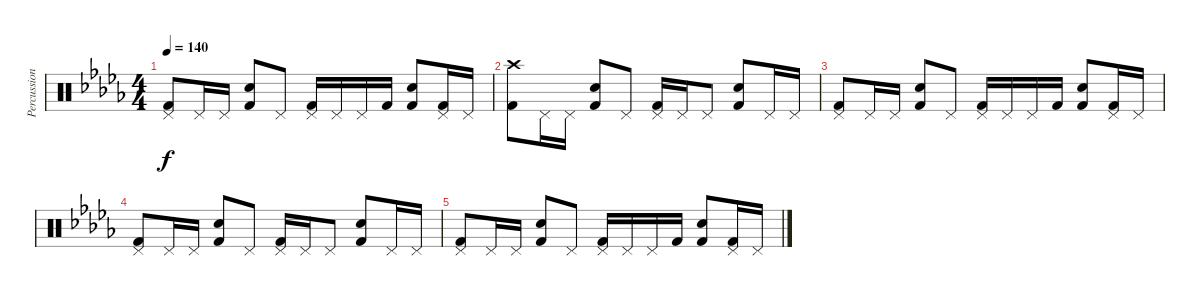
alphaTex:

\track ("Percussion" "Percussion") {instrument percussion}
\staff {score}
\articulation defaults
\ts (4 4)
\tempo 140
\clef neutral
\ks db
("Pedal Hi-Hat (hit)" "Kick (hit) 2").8{dy f} "Pedal Hi-Hat (hit)".16 "Pedal Hi-Hat (hit)".16 ("Snare (hit) 2" "Kick (hit) 2").8 "Pedal Hi-Hat (hit)".8 ("Pedal Hi-Hat (hit)" "Kick (hit) 2").16 "Pedal Hi-Hat (hit)".16 "Pedal Hi-Hat (hit)".16 "Kick (hit) 2".16 ("Snare (hit) 2" "Kick (hit) 2").8 ("Pedal Hi-Hat (hit)" "Kick (hit) 2").16 "Pedal Hi-Hat (hit)".16 |
("Crash high (hit)" "Kick (hit) 2").8 "Pedal Hi-Hat (hit)".16 "Pedal Hi-Hat (hit)".16 ("Snare (hit) 2" "Kick (hit) 2").8 "Pedal Hi-Hat (hit)".8 ("Pedal Hi-Hat (hit)" "Kick (hit) 2").16 "Pedal Hi-Hat (hit)".16 "Pedal Hi-Hat (hit)".8 ("Snare (hit) 2" "Kick (hit) 2").8 "Pedal Hi-Hat (hit)".16 "Pedal Hi-Hat (hit)".16 |
("Pedal Hi-Hat (hit)" "Kick (hit) 2").8 "Pedal Hi-Hat (hit)".16 "Pedal Hi-Hat (hit)".16 ("Snare (hit) 2" "Kick (hit) 2").8 "Pedal Hi-Hat (hit)".8 ("Pedal Hi-Hat (hit)" "Kick (hit) 2").16 "Pedal Hi-Hat (hit)".16 "Pedal Hi-Hat (hit)".16 "Kick (hit) 2".16 ("Snare (hit) 2" "Kick (hit) 2").8 ("Pedal Hi-Hat (hit)" "Kick (hit) 2").16 "Pedal Hi-Hat (hit)".16 |
("Pedal Hi-Hat (hit)" "Kick (hit) 2").8 "Pedal Hi-Hat (hit)".16 "Pedal Hi-Hat (hit)".16 ("Snare (hit) 2" "Kick (hit) 2").8 "Pedal Hi-Hat (hit)".8 ("Pedal Hi-Hat (hit)" "Kick (hit) 2").16 "Pedal Hi-Hat (hit)".16 "Pedal Hi-Hat (hit)".8 ("Snare (hit) 2" "Kick (hit) 2").8 "Pedal Hi-Hat (hit)".16 "Pedal Hi-Hat (hit)".16 |
("Pedal Hi-Hat (hit)" "Kick (hit) 2").8 "Pedal Hi-Hat (hit)".16 "Pedal Hi-Hat (hit)".16 ("Snare (hit) 2" "Kick (hit) 2").8 "Pedal Hi-Hat (hit)".8 ("Pedal Hi-Hat (hit)" "Kick (hit) 2").16 "Pedal Hi-Hat (hit)".16 "Pedal Hi-Hat (hit)".16 "Kick (hit) 2".16 ("Snare (hit) 2" "Kick (hit) 2").8 ("Pedal Hi-Hat (hit)" "Kick (hit) 2").16 "Pedal Hi-Hat (hit)".16
